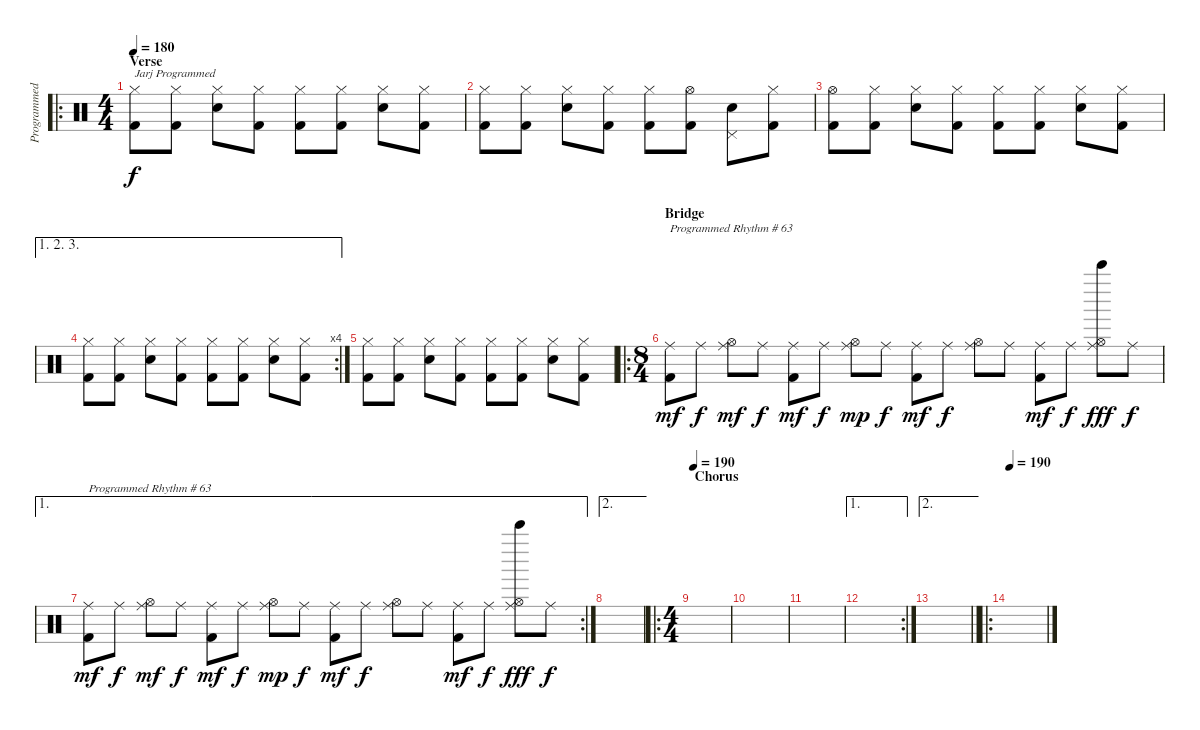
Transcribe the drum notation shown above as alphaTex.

\track ("Programmed Drums" "Programmed") {instrument percussion}
\staff {score}
\articulation defaults
\ro
\ts (4 4)
\section ("" "Verse")
\tempo 180
\clef neutral
\ks c
("Hi-Hat (closed)" "Kick (hit) 2").8{txt "Jarj Programmed" dy f balance 0} ("Hi-Hat (closed)" "Kick (hit) 2").8 ("Hi-Hat (closed)" "Snare (hit) 2").8 ("Hi-Hat (closed)" "Kick (hit) 2").8 ("Hi-Hat (closed)" "Kick (hit) 2").8 ("Hi-Hat (closed)" "Kick (hit) 2").8 ("Hi-Hat (closed)" "Snare (hit) 2").8 ("Hi-Hat (closed)" "Kick (hit) 2").8 |
("Hi-Hat (closed)" "Kick (hit) 2").8 ("Hi-Hat (closed)" "Kick (hit) 2").8 ("Hi-Hat (closed)" "Snare (hit) 2").8 ("Hi-Hat (closed)" "Kick (hit) 2").8 ("Hi-Hat (closed)" "Kick (hit) 2").8 ("Hi-Hat (open)" "Kick (hit) 2").8 ("Pedal Hi-Hat (hit)" "Snare (hit) 2").8 ("Hi-Hat (closed)" "Kick (hit) 2").8 |
("Hi-Hat (open)" "Kick (hit) 2").8 ("Hi-Hat (closed)" "Kick (hit) 2").8 ("Hi-Hat (closed)" "Snare (hit) 2").8 ("Hi-Hat (closed)" "Kick (hit) 2").8 ("Hi-Hat (closed)" "Kick (hit) 2").8 ("Hi-Hat (closed)" "Kick (hit) 2").8 ("Hi-Hat (closed)" "Snare (hit) 2").8 ("Hi-Hat (closed)" "Kick (hit) 2").8 |
\ae (1 2 3)
\rc 4
("Hi-Hat (closed)" "Kick (hit) 2").8 ("Hi-Hat (closed)" "Kick (hit) 2").8 ("Hi-Hat (closed)" "Snare (hit) 2").8 ("Hi-Hat (closed)" "Kick (hit) 2").8 ("Hi-Hat (closed)" "Kick (hit) 2").8 ("Hi-Hat (closed)" "Kick (hit) 2").8 ("Hi-Hat (closed)" "Snare (hit) 2").8 ("Hi-Hat (closed)" "Kick (hit) 2").8 |
("Hi-Hat (closed)" "Kick (hit) 2").8 ("Hi-Hat (closed)" "Kick (hit) 2").8 ("Hi-Hat (closed)" "Snare (hit) 2").8 ("Hi-Hat (closed)" "Kick (hit) 2").8 ("Hi-Hat (closed)" "Kick (hit) 2").8 ("Hi-Hat (closed)" "Kick (hit) 2").8 ("Hi-Hat (closed)" "Snare (hit) 2").8 ("Hi-Hat (closed)" "Kick (hit) 2").8 |
\ro
\ts (8 4)
\section ("" "Bridge")
("Ride (middle)" "Kick (hit) 2").8{txt "Programmed Rhythm # 63" dy mf balance 8} "Ride (middle)".8{dy f} ("Ride (middle)" "Hi-Hat (open)").8{dy mf} "Ride (middle)".8{dy f} ("Ride (middle)" "Kick (hit) 2").8{dy mf} "Ride (middle)".8{dy f} ("Ride (middle)" "Hi-Hat (open)").8{dy mp} "Ride (middle)".8{dy f} ("Ride (middle)" "Kick (hit) 2").8{dy mf} "Ride (middle)".8{dy f} ("Ride (middle)" "Hi-Hat (open)").8 "Ride (middle)".8 ("Ride (middle)" "Kick (hit) 2").8{dy mf} "Ride (middle)".8{dy f} ("Ride (middle)" "Hi-Hat (open)" "Bell Tree (hit)").8{dy fff} "Ride (middle)".8{dy f} |
\ae 1
\rc 2
("Ride (middle)" "Kick (hit) 2").8{txt "Programmed Rhythm # 63" dy mf} "Ride (middle)".8{dy f} ("Ride (middle)" "Hi-Hat (open)").8{dy mf} "Ride (middle)".8{dy f} ("Ride (middle)" "Kick (hit) 2").8{dy mf} "Ride (middle)".8{dy f} ("Ride (middle)" "Hi-Hat (open)").8{dy mp} "Ride (middle)".8{dy f} ("Ride (middle)" "Kick (hit) 2").8{dy mf} "Ride (middle)".8{dy f} ("Ride (middle)" "Hi-Hat (open)").8 "Ride (middle)".8 ("Ride (middle)" "Kick (hit) 2").8{dy mf} "Ride (middle)".8{dy f} ("Ride (middle)" "Hi-Hat (open)" "Bell Tree (hit)").8{dy fff} "Ride (middle)".8{dy f} |
\ae 2
|
\ro
\ts (4 4)
\section ("" "Chorus")
\tempo 190
|
|
|
\ae 1
\rc 2
|
\ae 2
\barLineRight lightlight
|
\ro
\tempo 190
